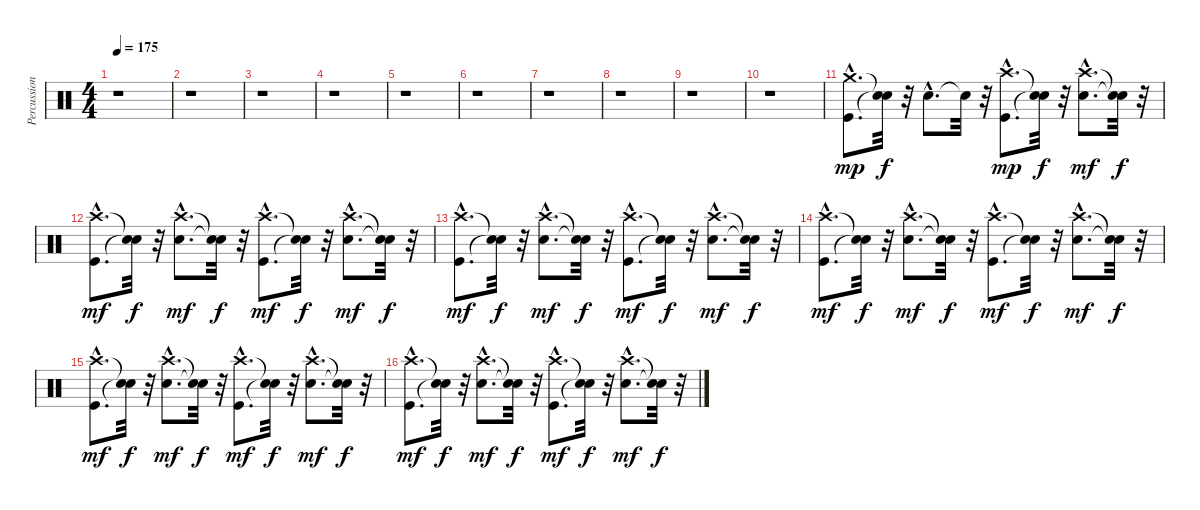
\track ("Percussion" "Percussion") {instrument percussion}
\staff {score}
\articulation defaults
\ts (4 4)
\tempo 175
\tempo 150
\tempo 175
\clef neutral
\ks c
r.1{dy mp} |
r.1 |
r.1 |
r.1 |
r.1 |
r.1 |
r.1 |
r.1 |
r.1 |
r.1 |
("Crash medium (hit)"{hac} "Kick (hit)"{hac}).8{d} ("Snare (hit)"{t} "Snare (hit)"{t}).32{dy f} r.32 "Snare (hit) 2"{hac}.8{d} "Snare (hit)"{t}.32 r.32 ("Kick (hit)"{hac} "Crash high (hit)"{hac}).8{d dy mp} ("Snare (hit)"{t} "Snare (hit)"{t}).32{dy f} r.32 ("Snare (hit) 2"{hac} "Crash high (hit)"{hac}).8{d dy mf} ("Snare (hit)"{t} "Snare (hit)"{t}).32{dy f} r.32 |
("Kick (hit)"{hac} "Crash high (hit)"{hac}).8{d dy mf} ("Snare (hit)"{t} "Snare (hit)"{t}).32{dy f} r.32 ("Snare (hit) 2"{hac} "Crash high (hit)"{hac}).8{d dy mf} ("Snare (hit)"{t} "Snare (hit)"{t}).32{dy f} r.32 ("Kick (hit)"{hac} "Crash high (hit)"{hac}).8{d dy mf} ("Snare (hit)"{t} "Snare (hit)"{t}).32{dy f} r.32 ("Snare (hit) 2"{hac} "Crash high (hit)"{hac}).8{d dy mf} ("Snare (hit)"{t} "Snare (hit)"{t}).32{dy f} r.32 |
("Kick (hit)"{hac} "Crash high (hit)"{hac}).8{d dy mf} ("Snare (hit)"{t} "Snare (hit)"{t}).32{dy f} r.32 ("Snare (hit) 2"{hac} "Crash high (hit)"{hac}).8{d dy mf} ("Snare (hit)"{t} "Snare (hit)"{t}).32{dy f} r.32 ("Kick (hit)"{hac} "Crash high (hit)"{hac}).8{d dy mf} ("Snare (hit)"{t} "Snare (hit)"{t}).32{dy f} r.32 ("Snare (hit) 2"{hac} "Crash high (hit)"{hac}).8{d dy mf} ("Snare (hit)"{t} "Snare (hit)"{t}).32{dy f} r.32 |
("Kick (hit)"{hac} "Crash high (hit)"{hac}).8{d dy mf} ("Snare (hit)"{t} "Snare (hit)"{t}).32{dy f} r.32 ("Snare (hit) 2"{hac} "Crash high (hit)"{hac}).8{d dy mf} ("Snare (hit)"{t} "Snare (hit)"{t}).32{dy f} r.32 ("Kick (hit)"{hac} "Crash high (hit)"{hac}).8{d dy mf} ("Snare (hit)"{t} "Snare (hit)"{t}).32{dy f} r.32 ("Snare (hit) 2"{hac} "Crash high (hit)"{hac}).8{d dy mf} ("Snare (hit)"{t} "Snare (hit)"{t}).32{dy f} r.32 |
("Kick (hit)"{hac} "Crash high (hit)"{hac}).8{d dy mf} ("Snare (hit)"{t} "Snare (hit)"{t}).32{dy f} r.32 ("Snare (hit) 2"{hac} "Crash high (hit)"{hac}).8{d dy mf} ("Snare (hit)"{t} "Snare (hit)"{t}).32{dy f} r.32 ("Kick (hit)"{hac} "Crash high (hit)"{hac}).8{d dy mf} ("Snare (hit)"{t} "Snare (hit)"{t}).32{dy f} r.32 ("Snare (hit) 2"{hac} "Crash high (hit)"{hac}).8{d dy mf} ("Snare (hit)"{t} "Snare (hit)"{t}).32{dy f} r.32 |
("Kick (hit)"{hac} "Crash high (hit)"{hac}).8{d dy mf} ("Snare (hit)"{t} "Snare (hit)"{t}).32{dy f} r.32 ("Snare (hit) 2"{hac} "Crash high (hit)"{hac}).8{d dy mf} ("Snare (hit)"{t} "Snare (hit)"{t}).32{dy f} r.32 ("Kick (hit)"{hac} "Crash high (hit)"{hac}).8{d dy mf} ("Snare (hit)"{t} "Snare (hit)"{t}).32{dy f} r.32 ("Snare (hit) 2"{hac} "Crash high (hit)"{hac}).8{d dy mf} ("Snare (hit)"{t} "Snare (hit)"{t}).32{dy f} r.32
